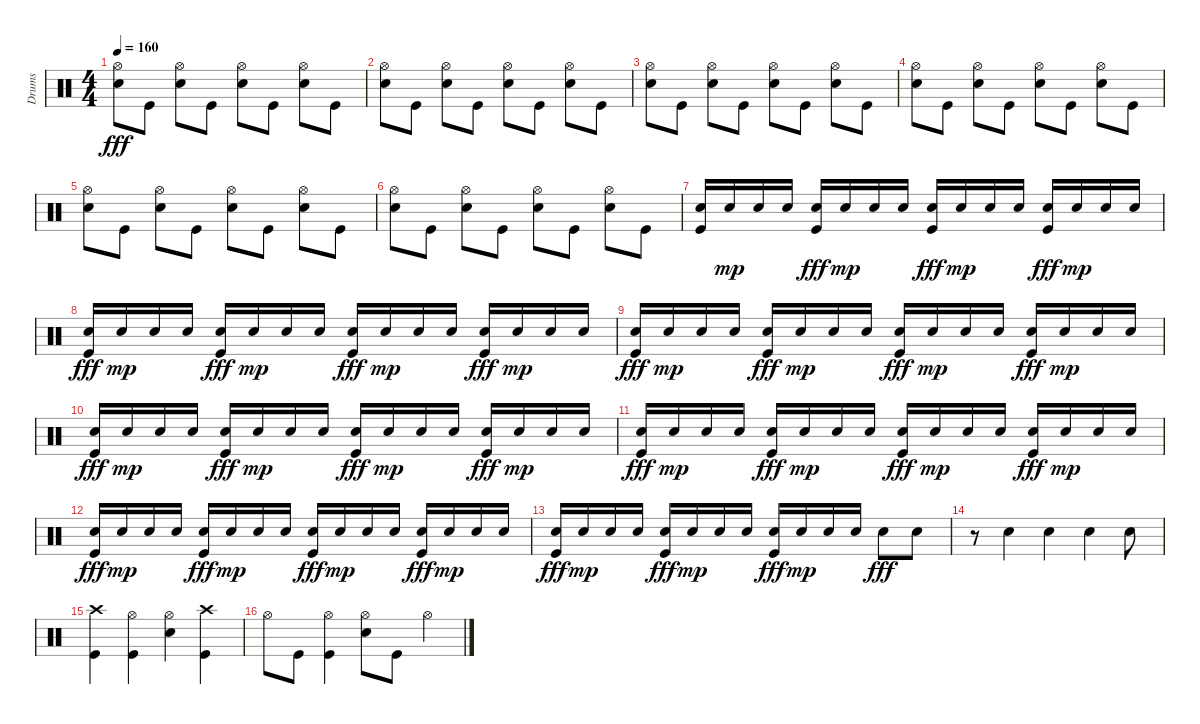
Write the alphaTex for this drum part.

\track ("Drums" "Drums") {instrument percussion}
\staff {score}
\articulation defaults
\ts (4 4)
\tempo 160
\clef neutral
\ks c
("Hi-Hat (open)" "Snare (hit) 2").8{dy fff} "Kick (hit)".8 ("Hi-Hat (open)" "Snare (hit) 2").8 "Kick (hit)".8 ("Hi-Hat (open)" "Snare (hit) 2").8 "Kick (hit)".8 ("Hi-Hat (open)" "Snare (hit) 2").8 "Kick (hit)".8 |
("Hi-Hat (open)" "Snare (hit) 2").8 "Kick (hit)".8 ("Hi-Hat (open)" "Snare (hit) 2").8 "Kick (hit)".8 ("Hi-Hat (open)" "Snare (hit) 2").8 "Kick (hit)".8 ("Hi-Hat (open)" "Snare (hit) 2").8 "Kick (hit)".8 |
("Hi-Hat (open)" "Snare (hit) 2").8 "Kick (hit)".8 ("Hi-Hat (open)" "Snare (hit) 2").8 "Kick (hit)".8 ("Hi-Hat (open)" "Snare (hit) 2").8 "Kick (hit)".8 ("Hi-Hat (open)" "Snare (hit) 2").8 "Kick (hit)".8 |
("Hi-Hat (open)" "Snare (hit) 2").8 "Kick (hit)".8 ("Hi-Hat (open)" "Snare (hit) 2").8 "Kick (hit)".8 ("Hi-Hat (open)" "Snare (hit) 2").8 "Kick (hit)".8 ("Hi-Hat (open)" "Snare (hit) 2").8 "Kick (hit)".8 |
("Hi-Hat (open)" "Snare (hit) 2").8 "Kick (hit)".8 ("Hi-Hat (open)" "Snare (hit) 2").8 "Kick (hit)".8 ("Hi-Hat (open)" "Snare (hit) 2").8 "Kick (hit)".8 ("Hi-Hat (open)" "Snare (hit) 2").8 "Kick (hit)".8 |
("Hi-Hat (open)" "Snare (hit) 2").8 "Kick (hit)".8 ("Hi-Hat (open)" "Snare (hit) 2").8 "Kick (hit)".8 ("Hi-Hat (open)" "Snare (hit) 2").8 "Kick (hit)".8 ("Hi-Hat (open)" "Snare (hit) 2").8 "Kick (hit)".8 |
("Snare (hit) 2" "Kick (hit)").16 "Snare (hit) 2".16{dy mp} "Snare (hit) 2".16 "Snare (hit) 2".16 ("Snare (hit) 2" "Kick (hit)").16{dy fff} "Snare (hit) 2".16{dy mp} "Snare (hit) 2".16 "Snare (hit) 2".16 ("Snare (hit) 2" "Kick (hit)").16{dy fff} "Snare (hit) 2".16{dy mp} "Snare (hit) 2".16 "Snare (hit) 2".16 ("Snare (hit) 2" "Kick (hit)").16{dy fff} "Snare (hit) 2".16{dy mp} "Snare (hit) 2".16 "Snare (hit) 2".16 |
("Snare (hit) 2" "Kick (hit)").16{dy fff} "Snare (hit) 2".16{dy mp} "Snare (hit) 2".16 "Snare (hit) 2".16 ("Snare (hit) 2" "Kick (hit)").16{dy fff} "Snare (hit) 2".16{dy mp} "Snare (hit) 2".16 "Snare (hit) 2".16 ("Snare (hit) 2" "Kick (hit)").16{dy fff} "Snare (hit) 2".16{dy mp} "Snare (hit) 2".16 "Snare (hit) 2".16 ("Snare (hit) 2" "Kick (hit)").16{dy fff} "Snare (hit) 2".16{dy mp} "Snare (hit) 2".16 "Snare (hit) 2".16 |
("Snare (hit) 2" "Kick (hit)").16{dy fff} "Snare (hit) 2".16{dy mp} "Snare (hit) 2".16 "Snare (hit) 2".16 ("Snare (hit) 2" "Kick (hit)").16{dy fff} "Snare (hit) 2".16{dy mp} "Snare (hit) 2".16 "Snare (hit) 2".16 ("Snare (hit) 2" "Kick (hit)").16{dy fff} "Snare (hit) 2".16{dy mp} "Snare (hit) 2".16 "Snare (hit) 2".16 ("Snare (hit) 2" "Kick (hit)").16{dy fff} "Snare (hit) 2".16{dy mp} "Snare (hit) 2".16 "Snare (hit) 2".16 |
("Snare (hit) 2" "Kick (hit)").16{dy fff} "Snare (hit) 2".16{dy mp} "Snare (hit) 2".16 "Snare (hit) 2".16 ("Snare (hit) 2" "Kick (hit)").16{dy fff} "Snare (hit) 2".16{dy mp} "Snare (hit) 2".16 "Snare (hit) 2".16 ("Snare (hit) 2" "Kick (hit)").16{dy fff} "Snare (hit) 2".16{dy mp} "Snare (hit) 2".16 "Snare (hit) 2".16 ("Snare (hit) 2" "Kick (hit)").16{dy fff} "Snare (hit) 2".16{dy mp} "Snare (hit) 2".16 "Snare (hit) 2".16 |
("Snare (hit) 2" "Kick (hit)").16{dy fff} "Snare (hit) 2".16{dy mp} "Snare (hit) 2".16 "Snare (hit) 2".16 ("Snare (hit) 2" "Kick (hit)").16{dy fff} "Snare (hit) 2".16{dy mp} "Snare (hit) 2".16 "Snare (hit) 2".16 ("Snare (hit) 2" "Kick (hit)").16{dy fff} "Snare (hit) 2".16{dy mp} "Snare (hit) 2".16 "Snare (hit) 2".16 ("Snare (hit) 2" "Kick (hit)").16{dy fff} "Snare (hit) 2".16{dy mp} "Snare (hit) 2".16 "Snare (hit) 2".16 |
("Snare (hit) 2" "Kick (hit)").16{dy fff} "Snare (hit) 2".16{dy mp} "Snare (hit) 2".16 "Snare (hit) 2".16 ("Snare (hit) 2" "Kick (hit)").16{dy fff} "Snare (hit) 2".16{dy mp} "Snare (hit) 2".16 "Snare (hit) 2".16 ("Snare (hit) 2" "Kick (hit)").16{dy fff} "Snare (hit) 2".16{dy mp} "Snare (hit) 2".16 "Snare (hit) 2".16 ("Snare (hit) 2" "Kick (hit)").16{dy fff} "Snare (hit) 2".16{dy mp} "Snare (hit) 2".16 "Snare (hit) 2".16 |
("Snare (hit) 2" "Kick (hit)").16{dy fff} "Snare (hit) 2".16{dy mp} "Snare (hit) 2".16 "Snare (hit) 2".16 ("Snare (hit) 2" "Kick (hit)").16{dy fff} "Snare (hit) 2".16{dy mp} "Snare (hit) 2".16 "Snare (hit) 2".16 ("Snare (hit) 2" "Kick (hit)").16{dy fff} "Snare (hit) 2".16{dy mp} "Snare (hit) 2".16 "Snare (hit) 2".16 "Snare (hit) 2".8{dy fff} "Snare (hit) 2".8 |
r.8 "Snare (hit) 2".4 "Snare (hit) 2".4 "Snare (hit) 2".4 "Snare (hit) 2".8 |
("Crash high (hit)" "Kick (hit)").4 ("Hi-Hat (open)" "Kick (hit)").4 ("Hi-Hat (open)" "Snare (hit) 2").4 ("Crash high (hit)" "Kick (hit)").4 |
"Hi-Hat (open)".8 "Kick (hit)".8 ("Hi-Hat (open)" "Kick (hit)").4 ("Hi-Hat (open)" "Snare (hit) 2").8 "Kick (hit)".8 "Hi-Hat (open)".4
